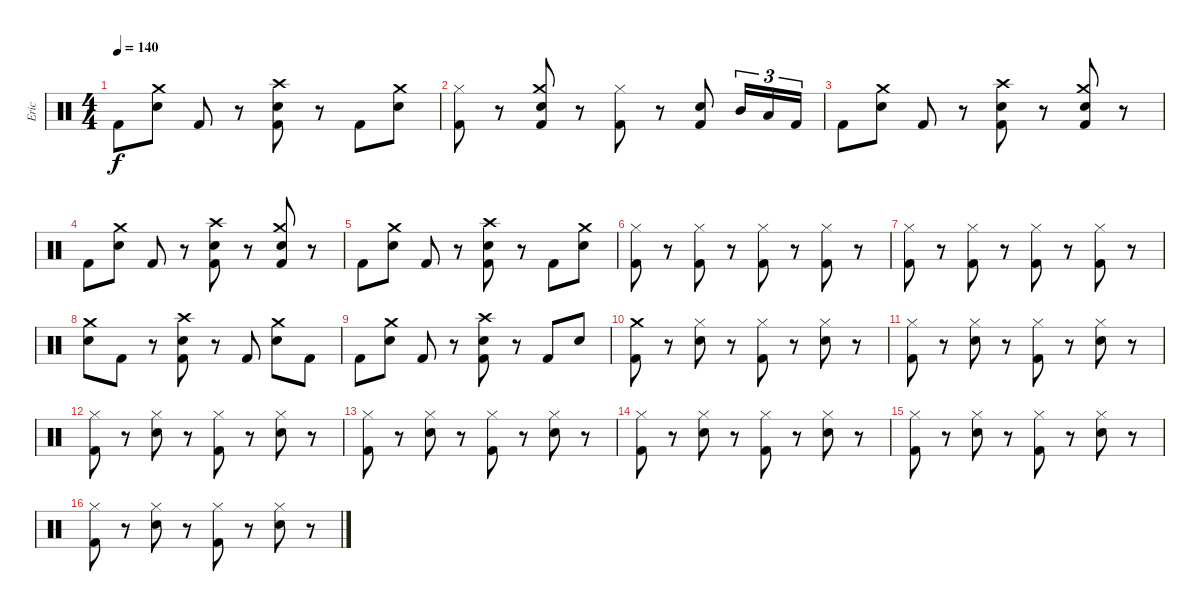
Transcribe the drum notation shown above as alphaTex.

\track ("Eric" "Eric") {instrument percussion}
\staff {score}
\articulation defaults
\ts (4 4)
\tempo 140
\clef neutral
\ks c "Kick (hit) 2".8{dy f}
("Crash medium (hit)" "Electric Snare (hit)").8 "Kick (hit) 2".8 r.8 ("Crash high (hit)" "Electric Snare (hit)" "Kick (hit) 2").8 r.8 "Kick (hit) 2".8 ("Crash medium (hit)" "Electric Snare (hit)").8 |
("Hi-Hat (closed)" "Kick (hit) 2").8 r.8 ("Crash medium (hit)" "Electric Snare (hit)" "Kick (hit) 2").8 r.8 ("Hi-Hat (closed)" "Kick (hit) 2").8 r.8 ("Electric Snare (hit)" "Kick (hit) 2").8 "Mid Tom (hit)".16{tu (3 2)} "Low Tom (hit)".16{tu (3 2)} "Kick (hit) 2".16{tu (3 2)} |
"Kick (hit) 2".8 ("Crash medium (hit)" "Electric Snare (hit)").8 "Kick (hit) 2".8 r.8 ("Crash high (hit)" "Electric Snare (hit)" "Kick (hit) 2").8 r.8 ("Crash medium (hit)" "Electric Snare (hit)" "Kick (hit) 2").8 r.8 |
"Kick (hit) 2".8 ("Crash medium (hit)" "Electric Snare (hit)").8 "Kick (hit) 2".8 r.8 ("Crash high (hit)" "Electric Snare (hit)" "Kick (hit) 2").8 r.8 ("Crash medium (hit)" "Electric Snare (hit)" "Kick (hit) 2").8 r.8 |
"Kick (hit) 2".8 ("Crash medium (hit)" "Electric Snare (hit)").8 "Kick (hit) 2".8 r.8 ("Crash high (hit)" "Electric Snare (hit)" "Kick (hit) 2").8 r.8 "Kick (hit) 2".8 ("Crash medium (hit)" "Electric Snare (hit)").8 |
("Hi-Hat (closed)" "Kick (hit) 2").8 r.8 ("Hi-Hat (closed)" "Kick (hit) 2").8 r.8 ("Hi-Hat (closed)" "Kick (hit) 2").8 r.8 ("Hi-Hat (closed)" "Kick (hit) 2").8 r.8 |
("Hi-Hat (closed)" "Kick (hit) 2").8 r.8 ("Hi-Hat (closed)" "Kick (hit) 2").8 r.8 ("Hi-Hat (closed)" "Kick (hit) 2").8 r.8 ("Hi-Hat (closed)" "Kick (hit) 2").8 r.8 |
("Crash medium (hit)" "Electric Snare (hit)").8 "Kick (hit) 2".8 r.8 ("Crash high (hit)" "Electric Snare (hit)" "Kick (hit) 2").8 r.8 "Kick (hit) 2".8 ("Crash medium (hit)" "Electric Snare (hit)").8 "Kick (hit) 2".8 |
"Kick (hit) 2".8 ("Crash medium (hit)" "Electric Snare (hit)").8 "Kick (hit) 2".8 r.8 ("Crash high (hit)" "Electric Snare (hit)" "Kick (hit) 2").8 r.8 "Kick (hit) 2".8 "Electric Snare (hit)".8 |
("Crash medium (hit)" "Kick (hit) 2").8 r.8 ("Hi-Hat (closed)" "Electric Snare (hit)").8 r.8 ("Hi-Hat (closed)" "Kick (hit) 2").8 r.8 ("Hi-Hat (closed)" "Electric Snare (hit)").8 r.8 |
("Hi-Hat (closed)" "Kick (hit) 2").8 r.8 ("Hi-Hat (closed)" "Electric Snare (hit)").8 r.8 ("Hi-Hat (closed)" "Kick (hit) 2").8 r.8 ("Hi-Hat (closed)" "Electric Snare (hit)").8 r.8 |
("Hi-Hat (closed)" "Kick (hit) 2").8 r.8 ("Hi-Hat (closed)" "Electric Snare (hit)").8 r.8 ("Hi-Hat (closed)" "Kick (hit) 2").8 r.8 ("Hi-Hat (closed)" "Electric Snare (hit)").8 r.8 |
("Hi-Hat (closed)" "Kick (hit) 2").8 r.8 ("Hi-Hat (closed)" "Electric Snare (hit)").8 r.8 ("Hi-Hat (closed)" "Kick (hit) 2").8 r.8 ("Hi-Hat (closed)" "Electric Snare (hit)").8 r.8 |
("Hi-Hat (closed)" "Kick (hit) 2").8 r.8 ("Hi-Hat (closed)" "Electric Snare (hit)").8 r.8 ("Hi-Hat (closed)" "Kick (hit) 2").8 r.8 ("Hi-Hat (closed)" "Electric Snare (hit)").8 r.8 |
("Hi-Hat (closed)" "Kick (hit) 2").8 r.8 ("Hi-Hat (closed)" "Electric Snare (hit)").8 r.8 ("Hi-Hat (closed)" "Kick (hit) 2").8 r.8 ("Hi-Hat (closed)" "Electric Snare (hit)").8 r.8 |
("Hi-Hat (closed)" "Kick (hit) 2").8 r.8 ("Hi-Hat (closed)" "Electric Snare (hit)").8 r.8 ("Hi-Hat (closed)" "Kick (hit) 2").8 r.8 ("Hi-Hat (closed)" "Electric Snare (hit)").8 r.8
